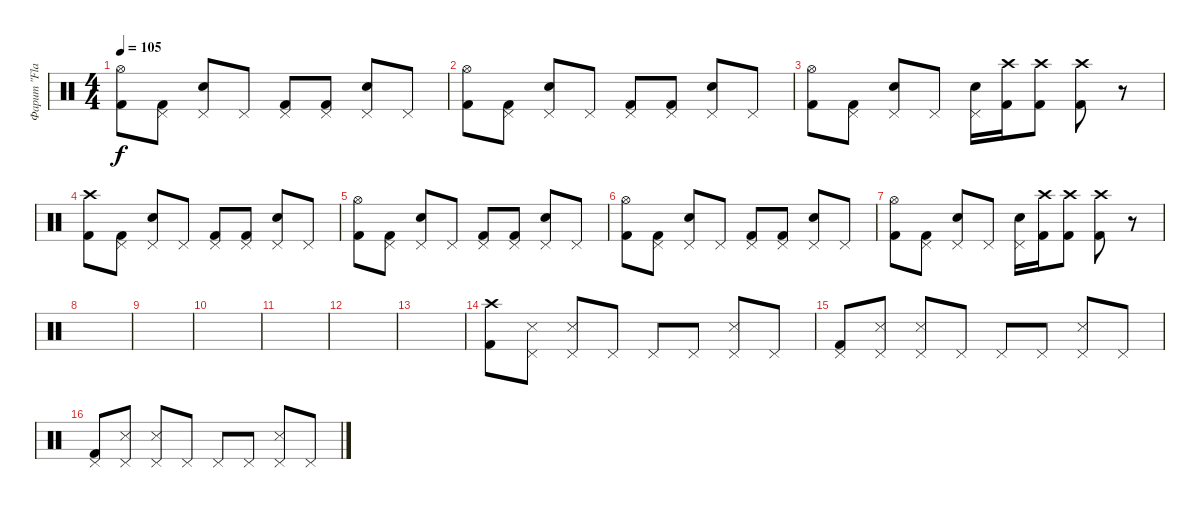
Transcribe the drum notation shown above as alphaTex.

\track ("Фарит \"Flag\" Шакиров" "Фарит \"Fla") {instrument percussion}
\staff {score}
\articulation defaults
\ts (4 4)
\tempo 105
\clef neutral
\ks c
("Hi-Hat (open)" "Kick (hit) 2").8{dy f} ("Pedal Hi-Hat (hit)" "Kick (hit) 2").8 ("Pedal Hi-Hat (hit)" "Electric Snare (hit)").8 "Pedal Hi-Hat (hit)".8 ("Pedal Hi-Hat (hit)" "Kick (hit) 2").8 ("Pedal Hi-Hat (hit)" "Kick (hit) 2").8 ("Pedal Hi-Hat (hit)" "Electric Snare (hit)").8 "Pedal Hi-Hat (hit)".8 |
("Hi-Hat (open)" "Kick (hit) 2").8 ("Pedal Hi-Hat (hit)" "Kick (hit) 2").8 ("Pedal Hi-Hat (hit)" "Electric Snare (hit)").8 "Pedal Hi-Hat (hit)".8 ("Pedal Hi-Hat (hit)" "Kick (hit) 2").8 ("Pedal Hi-Hat (hit)" "Kick (hit) 2").8 ("Pedal Hi-Hat (hit)" "Electric Snare (hit)").8 "Pedal Hi-Hat (hit)".8 |
("Hi-Hat (open)" "Kick (hit) 2").8 ("Pedal Hi-Hat (hit)" "Kick (hit) 2").8 ("Pedal Hi-Hat (hit)" "Electric Snare (hit)").8 "Pedal Hi-Hat (hit)".8 ("Pedal Hi-Hat (hit)" "Electric Snare (hit)").16 ("Crash high (hit)" "Kick (hit) 2").16 ("Crash high (hit)" "Kick (hit) 2").8 ("Crash high (hit)" "Kick (hit) 2").8 r.8 |
("Crash high (hit)" "Kick (hit) 2").8 ("Pedal Hi-Hat (hit)" "Kick (hit) 2").8 ("Pedal Hi-Hat (hit)" "Electric Snare (hit)").8 "Pedal Hi-Hat (hit)".8 ("Pedal Hi-Hat (hit)" "Kick (hit) 2").8 ("Pedal Hi-Hat (hit)" "Kick (hit) 2").8 ("Pedal Hi-Hat (hit)" "Electric Snare (hit)").8 "Pedal Hi-Hat (hit)".8 |
("Hi-Hat (open)" "Kick (hit) 2").8 ("Pedal Hi-Hat (hit)" "Kick (hit) 2").8 ("Pedal Hi-Hat (hit)" "Electric Snare (hit)").8 "Pedal Hi-Hat (hit)".8 ("Pedal Hi-Hat (hit)" "Kick (hit) 2").8 ("Pedal Hi-Hat (hit)" "Kick (hit) 2").8 ("Pedal Hi-Hat (hit)" "Electric Snare (hit)").8 "Pedal Hi-Hat (hit)".8 |
("Hi-Hat (open)" "Kick (hit) 2").8 ("Pedal Hi-Hat (hit)" "Kick (hit) 2").8 ("Pedal Hi-Hat (hit)" "Electric Snare (hit)").8 "Pedal Hi-Hat (hit)".8 ("Pedal Hi-Hat (hit)" "Kick (hit) 2").8 ("Pedal Hi-Hat (hit)" "Kick (hit) 2").8 ("Pedal Hi-Hat (hit)" "Electric Snare (hit)").8 "Pedal Hi-Hat (hit)".8 |
("Hi-Hat (open)" "Kick (hit) 2").8 ("Pedal Hi-Hat (hit)" "Kick (hit) 2").8 ("Pedal Hi-Hat (hit)" "Electric Snare (hit)").8 "Pedal Hi-Hat (hit)".8 ("Pedal Hi-Hat (hit)" "Electric Snare (hit)").16 ("Crash high (hit)" "Kick (hit) 2").16 ("Crash high (hit)" "Kick (hit) 2").8 ("Crash high (hit)" "Kick (hit) 2").8 r.8 |
|
|
|
|
|
|
("Crash high (hit)" "Kick (hit) 2").8 ("Pedal Hi-Hat (hit)" "Snare (side stick) 3").8 ("Pedal Hi-Hat (hit)" "Snare (side stick) 3").8 "Pedal Hi-Hat (hit)".8 "Pedal Hi-Hat (hit)".8 "Pedal Hi-Hat (hit)".8 ("Pedal Hi-Hat (hit)" "Snare (side stick) 3").8 "Pedal Hi-Hat (hit)".8 |
("Pedal Hi-Hat (hit)" "Kick (hit) 2").8 ("Pedal Hi-Hat (hit)" "Snare (side stick) 3").8 ("Pedal Hi-Hat (hit)" "Snare (side stick) 3").8 "Pedal Hi-Hat (hit)".8 "Pedal Hi-Hat (hit)".8 "Pedal Hi-Hat (hit)".8 ("Pedal Hi-Hat (hit)" "Snare (side stick) 3").8 "Pedal Hi-Hat (hit)".8 |
("Pedal Hi-Hat (hit)" "Kick (hit) 2").8 ("Pedal Hi-Hat (hit)" "Snare (side stick) 3").8 ("Pedal Hi-Hat (hit)" "Snare (side stick) 3").8 "Pedal Hi-Hat (hit)".8 "Pedal Hi-Hat (hit)".8 "Pedal Hi-Hat (hit)".8 ("Pedal Hi-Hat (hit)" "Snare (side stick) 3").8 "Pedal Hi-Hat (hit)".8
